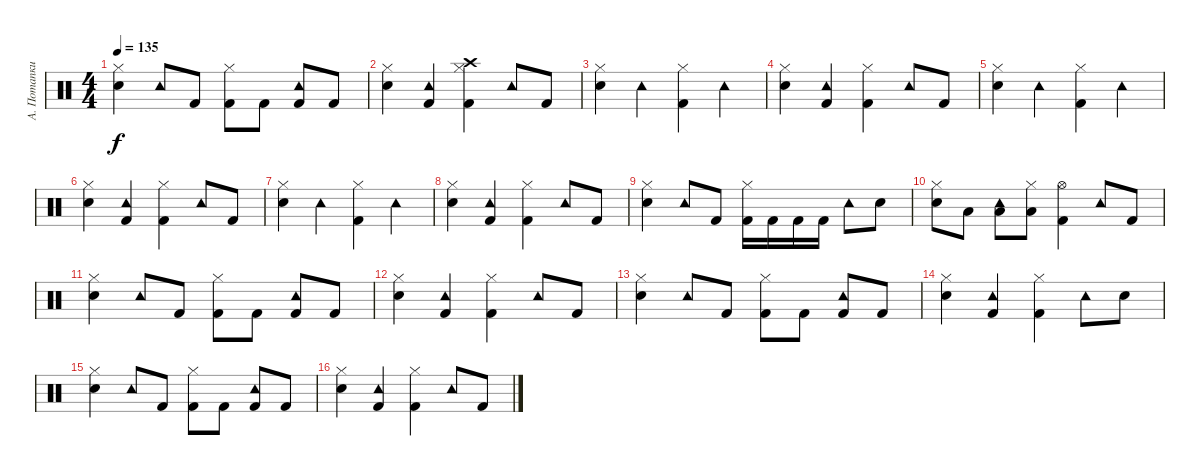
\track ("А. Потапкин" "А. Потапки") {instrument percussion}
\staff {score}
\articulation defaults
\ts (4 4)
\tempo 135
\clef neutral
\ks c
("Hi-Hat (closed)" "Snare (hit) 2").4{dy f} "Tambourine (hit)".8 "Kick (hit) 2".8 ("Hi-Hat (closed)" "Kick (hit) 2").8 "Kick (hit) 2".8 ("Tambourine (hit)" "Kick (hit) 2").8 "Kick (hit) 2".8 |
("Hi-Hat (closed)" "Snare (hit) 2").4 ("Tambourine (hit)" "Kick (hit) 2").4 ("Crash high (hit)" "Hi-Hat (closed)" "Kick (hit) 2").4 "Tambourine (hit)".8 "Kick (hit) 2".8 |
("Hi-Hat (closed)" "Snare (hit) 2").4 "Tambourine (hit)".4 ("Hi-Hat (closed)" "Kick (hit) 2").4 "Tambourine (hit)".4 |
("Hi-Hat (closed)" "Snare (hit) 2").4 ("Tambourine (hit)" "Kick (hit) 2").4 ("Hi-Hat (closed)" "Kick (hit) 2").4 "Tambourine (hit)".8 "Kick (hit) 2".8 |
("Hi-Hat (closed)" "Snare (hit) 2").4 "Tambourine (hit)".4 ("Hi-Hat (closed)" "Kick (hit) 2").4 "Tambourine (hit)".4 |
("Hi-Hat (closed)" "Snare (hit) 2").4 ("Tambourine (hit)" "Kick (hit) 2").4 ("Hi-Hat (closed)" "Kick (hit) 2").4 "Tambourine (hit)".8 "Kick (hit) 2".8 |
("Hi-Hat (closed)" "Snare (hit) 2").4 "Tambourine (hit)".4 ("Hi-Hat (closed)" "Kick (hit) 2").4 "Tambourine (hit)".4 |
("Hi-Hat (closed)" "Snare (hit) 2").4 ("Tambourine (hit)" "Kick (hit) 2").4 ("Hi-Hat (closed)" "Kick (hit) 2").4 "Tambourine (hit)".8 "Kick (hit) 2".8 |
("Hi-Hat (closed)" "Snare (hit) 2").4 "Tambourine (hit)".8 "Kick (hit) 2".8 ("Hi-Hat (closed)" "Kick (hit) 2").16 "Kick (hit) 2".16 "Kick (hit) 2".16 "Kick (hit) 2".16 "Tambourine (hit)".8 "Electric Snare (hit)".8 |
("Hi-Hat (closed)" "Electric Snare (hit)").8 "Low Floor Tom (hit)".8 ("Tambourine (hit)" "Low Floor Tom (hit)").8 ("Hi-Hat (closed)" "Low Floor Tom (hit)").8 ("Hi-Hat (open)" "Kick (hit) 2").4 "Tambourine (hit)".8 "Kick (hit) 2".8 |
("Hi-Hat (closed)" "Snare (hit) 2").4 "Tambourine (hit)".8 "Kick (hit) 2".8 ("Hi-Hat (closed)" "Kick (hit) 2").8 "Kick (hit) 2".8 ("Tambourine (hit)" "Kick (hit) 2").8 "Kick (hit) 2".8 |
("Hi-Hat (closed)" "Snare (hit) 2").4 ("Tambourine (hit)" "Kick (hit) 2").4 ("Hi-Hat (closed)" "Kick (hit) 2").4 "Tambourine (hit)".8 "Kick (hit) 2".8 |
("Hi-Hat (closed)" "Snare (hit) 2").4 "Tambourine (hit)".8 "Kick (hit) 2".8 ("Hi-Hat (closed)" "Kick (hit) 2").8 "Kick (hit) 2".8 ("Tambourine (hit)" "Kick (hit) 2").8 "Kick (hit) 2".8 |
("Hi-Hat (closed)" "Snare (hit) 2").4 ("Tambourine (hit)" "Kick (hit) 2").4 ("Hi-Hat (closed)" "Kick (hit) 2").4 "Tambourine (hit)".8 "Snare (hit) 2".8 |
("Hi-Hat (closed)" "Snare (hit) 2").4 "Tambourine (hit)".8 "Kick (hit) 2".8 ("Hi-Hat (closed)" "Kick (hit) 2").8 "Kick (hit) 2".8 ("Tambourine (hit)" "Kick (hit) 2").8 "Kick (hit) 2".8 |
("Hi-Hat (closed)" "Snare (hit) 2").4 ("Tambourine (hit)" "Kick (hit) 2").4 ("Hi-Hat (closed)" "Kick (hit) 2").4 "Tambourine (hit)".8 "Kick (hit) 2".8
